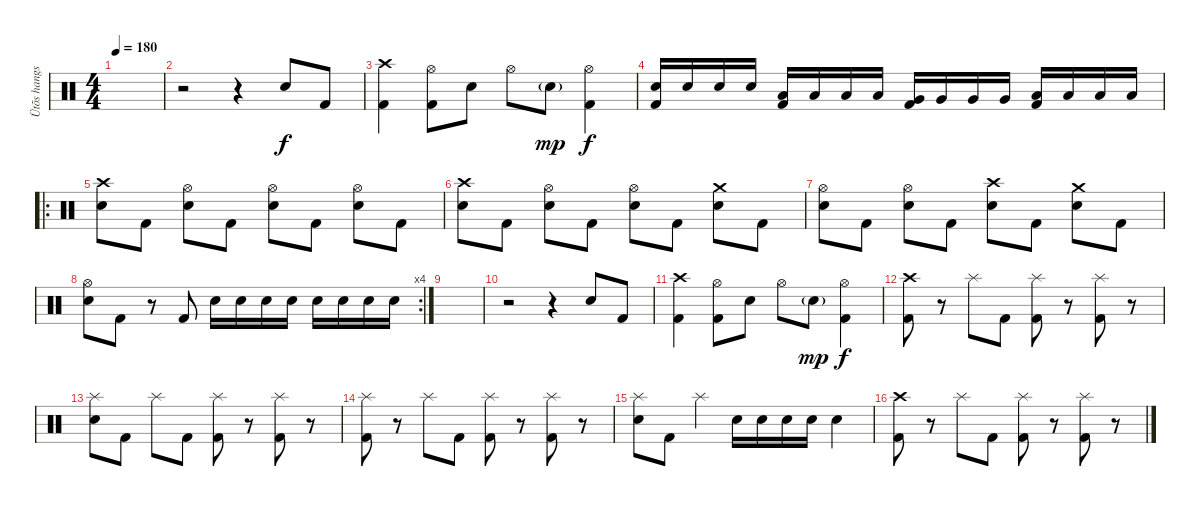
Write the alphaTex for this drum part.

\track ("Ütõs hangszer" "Ütõs hangs") {instrument percussion}
\staff {score}
\articulation defaults
\ts (4 4)
\tempo 180
\clef neutral
\ks c
|
r.2 r.4 "Electric Snare (hit)".8 "Kick (hit) 2".8 |
("Crash high (hit)" "Kick (hit) 2").4 ("Hi-Hat (open)" "Kick (hit) 2").8 "Electric Snare (hit)".8 "Hi-Hat (open)".8 "Electric Snare (hit)"{g}.8{dy mp} ("Hi-Hat (open)" "Kick (hit) 2").4{dy f} |
("Electric Snare (hit)" "Kick (hit) 2").16 "Electric Snare (hit)".16 "Electric Snare (hit)".16 "Electric Snare (hit)".16 ("Low Tom (hit)" "Kick (hit) 2").16 "Low Tom (hit)".16 "Low Tom (hit)".16 "Low Tom (hit)".16 ("Very Low Tom (hit)" "Kick (hit) 2").16 "Very Low Tom (hit)".16 "Very Low Tom (hit)".16 "Very Low Tom (hit)".16 ("Low Floor Tom (hit)" "Kick (hit) 2").16 "Low Floor Tom (hit)".16 "Low Floor Tom (hit)".16 "Low Floor Tom (hit)".16 |
\ro
("Crash high (hit)" "Electric Snare (hit)").8 "Kick (hit) 2".8 ("Hi-Hat (open)" "Electric Snare (hit)").8 "Kick (hit) 2".8 ("Hi-Hat (open)" "Electric Snare (hit)").8 "Kick (hit) 2".8 ("Hi-Hat (open)" "Electric Snare (hit)").8 "Kick (hit) 2".8 |
("Crash high (hit)" "Electric Snare (hit)").8 "Kick (hit) 2".8 ("Hi-Hat (open)" "Electric Snare (hit)").8 "Kick (hit) 2".8 ("Hi-Hat (open)" "Electric Snare (hit)").8 "Kick (hit) 2".8 ("Crash medium (hit)" "Electric Snare (hit)").8 "Kick (hit) 2".8 |
("Hi-Hat (open)" "Electric Snare (hit)").8 "Kick (hit) 2".8 ("Hi-Hat (open)" "Electric Snare (hit)").8 "Kick (hit) 2".8 ("Crash high (hit)" "Electric Snare (hit)").8 "Kick (hit) 2".8 ("Crash medium (hit)" "Electric Snare (hit)").8 "Kick (hit) 2".8 |
\rc 4
("Hi-Hat (open)" "Electric Snare (hit)").8 "Kick (hit) 2".8 r.8 "Kick (hit) 2".8 "Electric Snare (hit)".16 "Electric Snare (hit)".16 "Electric Snare (hit)".16 "Electric Snare (hit)".16 "Electric Snare (hit)".16 "Electric Snare (hit)".16 "Electric Snare (hit)".16 "Electric Snare (hit)".16 |
|
r.2 r.4 "Electric Snare (hit)".8 "Kick (hit) 2".8 |
("Crash high (hit)" "Kick (hit) 2").4 ("Hi-Hat (open)" "Kick (hit) 2").8 "Electric Snare (hit)".8 "Hi-Hat (open)".8 "Electric Snare (hit)"{g}.8{dy mp} ("Hi-Hat (open)" "Kick (hit) 2").4{dy f} |
("Crash high (hit)" "Kick (hit) 2").8 r.8 "Splash (hit)".8 "Kick (hit) 2".8 ("Splash (hit)" "Kick (hit) 2").8 r.8 ("Splash (hit)" "Kick (hit) 2").8 r.8 |
("Splash (hit)" "Electric Snare (hit)").8 "Kick (hit) 2".8 "Splash (hit)".8 "Kick (hit) 2".8 ("Splash (hit)" "Kick (hit) 2").8 r.8 ("Splash (hit)" "Kick (hit) 2").8 r.8 |
("Splash (hit)" "Kick (hit) 2").8 r.8 "Splash (hit)".8 "Kick (hit) 2".8 ("Splash (hit)" "Kick (hit) 2").8 r.8 ("Splash (hit)" "Kick (hit) 2").8 r.8 |
("Splash (hit)" "Electric Snare (hit)").8 "Kick (hit) 2".8 "Splash (hit)".4 "Electric Snare (hit)".16 "Electric Snare (hit)".16 "Electric Snare (hit)".16 "Electric Snare (hit)".16 "Electric Snare (hit)".4 |
("Crash high (hit)" "Kick (hit) 2").8 r.8 "Splash (hit)".8 "Kick (hit) 2".8 ("Splash (hit)" "Kick (hit) 2").8 r.8 ("Splash (hit)" "Kick (hit) 2").8 r.8
